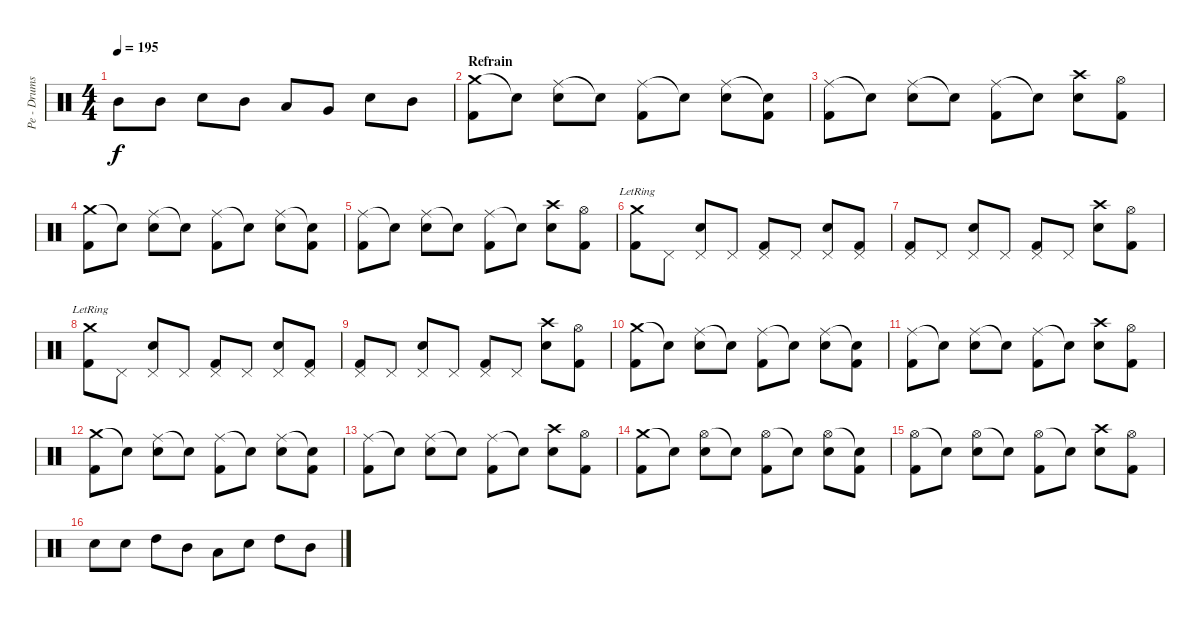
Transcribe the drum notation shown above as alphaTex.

\track ("Pe - Drums" "Pe - Drums") {instrument percussion}
\staff {score}
\articulation defaults
\ts (4 4)
\tempo 195
\clef neutral
\ks c "Mid Tom (hit)".8{dy f} "Mid Tom (hit)".8 "Electric Snare (hit)".8 "Mid Tom (hit)".8 "Low Tom (hit)".8 "Very Low Tom (hit)".8 "Electric Snare (hit)".8 "Mid Tom (hit)".8
|
\section ("" "Refrain")
("Crash medium (hit)" "Kick (hit) 2").8 "Snare (hit)"{t}.8 ("Ride (middle)" "Electric Snare (hit)").8 "Snare (hit)"{t}.8 ("Ride (middle)" "Kick (hit) 2").8 "Snare (hit)"{t}.8 ("Ride (middle)" "Electric Snare (hit)").8 ("Snare (hit)"{t} "Kick (hit) 2").8 |
("Ride (middle)" "Kick (hit) 2").8 "Snare (hit)"{t}.8 ("Ride (middle)" "Electric Snare (hit)").8 "Snare (hit)"{t}.8 ("Ride (middle)" "Kick (hit) 2").8 "Snare (hit)"{t}.8 ("Crash high (hit)" "Electric Snare (hit)").8 ("Hi-Hat (open)" "Kick (hit) 2").8 |
("Crash medium (hit)" "Kick (hit) 2").8 "Snare (hit)"{t}.8 ("Ride (middle)" "Electric Snare (hit)").8 "Snare (hit)"{t}.8 ("Ride (middle)" "Kick (hit) 2").8 "Snare (hit)"{t}.8 ("Ride (middle)" "Electric Snare (hit)").8 ("Snare (hit)"{t} "Kick (hit) 2").8 |
("Ride (middle)" "Kick (hit) 2").8 "Snare (hit)"{t}.8 ("Ride (middle)" "Electric Snare (hit)").8 "Snare (hit)"{t}.8 ("Ride (middle)" "Kick (hit) 2").8 "Snare (hit)"{t}.8 ("Crash high (hit)" "Electric Snare (hit)").8 ("Hi-Hat (open)" "Kick (hit) 2").8 |
("Crash medium (hit)"{lr} "Kick (hit) 2").8 "Pedal Hi-Hat (hit)".8 ("Pedal Hi-Hat (hit)" "Electric Snare (hit)").8 "Pedal Hi-Hat (hit)".8 ("Pedal Hi-Hat (hit)" "Kick (hit) 2").8 "Pedal Hi-Hat (hit)".8 ("Pedal Hi-Hat (hit)" "Electric Snare (hit)").8 ("Pedal Hi-Hat (hit)" "Kick (hit) 2").8 |
("Pedal Hi-Hat (hit)" "Kick (hit) 2").8 "Pedal Hi-Hat (hit)".8 ("Pedal Hi-Hat (hit)" "Electric Snare (hit)").8 "Pedal Hi-Hat (hit)".8 ("Pedal Hi-Hat (hit)" "Kick (hit) 2").8 "Pedal Hi-Hat (hit)".8 ("Crash high (hit)" "Electric Snare (hit)").8 ("Hi-Hat (open)" "Kick (hit) 2").8 |
("Crash medium (hit)"{lr} "Kick (hit) 2").8 "Pedal Hi-Hat (hit)".8 ("Pedal Hi-Hat (hit)" "Electric Snare (hit)").8 "Pedal Hi-Hat (hit)".8 ("Pedal Hi-Hat (hit)" "Kick (hit) 2").8 "Pedal Hi-Hat (hit)".8 ("Pedal Hi-Hat (hit)" "Electric Snare (hit)").8 ("Pedal Hi-Hat (hit)" "Kick (hit) 2").8 |
("Pedal Hi-Hat (hit)" "Kick (hit) 2").8 "Pedal Hi-Hat (hit)".8 ("Pedal Hi-Hat (hit)" "Electric Snare (hit)").8 "Pedal Hi-Hat (hit)".8 ("Pedal Hi-Hat (hit)" "Kick (hit) 2").8 "Pedal Hi-Hat (hit)".8 ("Crash high (hit)" "Electric Snare (hit)").8 ("Hi-Hat (open)" "Kick (hit) 2").8 |
("Crash medium (hit)" "Kick (hit) 2").8 "Snare (hit)"{t}.8 ("Ride (middle)" "Electric Snare (hit)").8 "Snare (hit)"{t}.8 ("Ride (middle)" "Kick (hit) 2").8 "Snare (hit)"{t}.8 ("Ride (middle)" "Electric Snare (hit)").8 ("Snare (hit)"{t} "Kick (hit) 2").8 |
("Ride (middle)" "Kick (hit) 2").8 "Snare (hit)"{t}.8 ("Ride (middle)" "Electric Snare (hit)").8 "Snare (hit)"{t}.8 ("Ride (middle)" "Kick (hit) 2").8 "Snare (hit)"{t}.8 ("Crash high (hit)" "Electric Snare (hit)").8 ("Hi-Hat (open)" "Kick (hit) 2").8 |
("Crash medium (hit)" "Kick (hit) 2").8 "Snare (hit)"{t}.8 ("Ride (middle)" "Electric Snare (hit)").8 "Snare (hit)"{t}.8 ("Ride (middle)" "Kick (hit) 2").8 "Snare (hit)"{t}.8 ("Ride (middle)" "Electric Snare (hit)").8 ("Snare (hit)"{t} "Kick (hit) 2").8 |
("Ride (middle)" "Kick (hit) 2").8 "Snare (hit)"{t}.8 ("Ride (middle)" "Electric Snare (hit)").8 "Snare (hit)"{t}.8 ("Ride (middle)" "Kick (hit) 2").8 "Snare (hit)"{t}.8 ("Crash high (hit)" "Electric Snare (hit)").8 ("Hi-Hat (open)" "Kick (hit) 2").8 |
("Crash medium (hit)" "Kick (hit) 2").8 "Snare (hit)"{t}.8 ("Hi-Hat (open)" "Electric Snare (hit)").8 "Snare (hit)"{t}.8 ("Hi-Hat (open)" "Kick (hit) 2").8 "Snare (hit)"{t}.8 ("Hi-Hat (open)" "Electric Snare (hit)").8 ("Snare (hit)"{t} "Kick (hit) 2").8 |
("Hi-Hat (open)" "Kick (hit) 2").8 "Snare (hit)"{t}.8 ("Hi-Hat (open)" "Electric Snare (hit)").8 "Snare (hit)"{t}.8 ("Hi-Hat (open)" "Kick (hit) 2").8 "Snare (hit)"{t}.8 ("Crash high (hit)" "Electric Snare (hit)").8 ("Hi-Hat (open)" "Kick (hit) 2").8 |
"Electric Snare (hit)".8 "Electric Snare (hit)".8 "High Tom (hit)".8 "Mid Tom (hit)".8 "Low Tom (hit)".8 "Electric Snare (hit)".8 "High Tom (hit)".8 "Mid Tom (hit)".8
